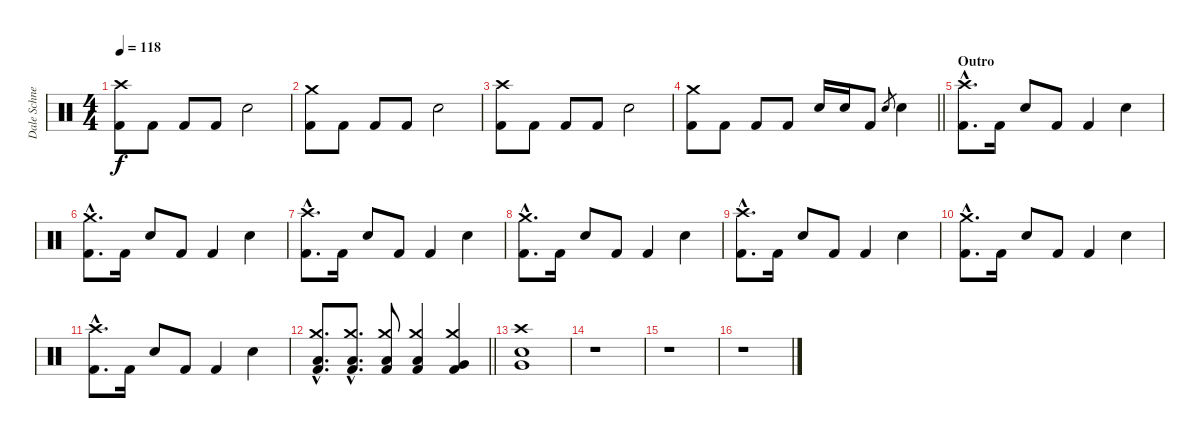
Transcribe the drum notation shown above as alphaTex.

\track ("Dale Schnettler (Drums)" "Dale Schne") {instrument percussion}
\staff {score}
\articulation defaults
\ts (4 4)
\tempo 118
\clef neutral
\ks c
("Crash high (hit)" "Kick (hit) 2").8{dy f} "Kick (hit) 2".8 "Kick (hit) 2".8 "Kick (hit) 2".8 "Electric Snare (hit)".2 |
("Crash medium (hit)" "Kick (hit) 2").8 "Kick (hit) 2".8 "Kick (hit) 2".8 "Kick (hit) 2".8 "Electric Snare (hit)".2 |
("Crash high (hit)" "Kick (hit) 2").8 "Kick (hit) 2".8 "Kick (hit) 2".8 "Kick (hit) 2".8 "Electric Snare (hit)".2 |
\barLineRight lightlight
("Crash medium (hit)" "Kick (hit) 2").8 "Kick (hit) 2".8 "Kick (hit) 2".8 "Kick (hit) 2".8 "Electric Snare (hit)".16 "Electric Snare (hit)".16 "Kick (hit) 2".8 "Electric Snare (hit)".8{gr} "Electric Snare (hit)".4 |
\section ("" "Outro")
("Crash high (hit)"{hac} "Kick (hit) 2"{hac}).8{d} "Kick (hit) 2".16 "Electric Snare (hit)".8 "Kick (hit) 2".8 "Kick (hit) 2".4 "Electric Snare (hit)".4 |
("Crash medium (hit)"{hac} "Kick (hit) 2"{hac}).8{d} "Kick (hit) 2".16 "Electric Snare (hit)".8 "Kick (hit) 2".8 "Kick (hit) 2".4 "Electric Snare (hit)".4 |
("Crash high (hit)"{hac} "Kick (hit) 2"{hac}).8{d} "Kick (hit) 2".16 "Electric Snare (hit)".8 "Kick (hit) 2".8 "Kick (hit) 2".4 "Electric Snare (hit)".4 |
("Crash medium (hit)"{hac} "Kick (hit) 2"{hac}).8{d} "Kick (hit) 2".16 "Electric Snare (hit)".8 "Kick (hit) 2".8 "Kick (hit) 2".4 "Electric Snare (hit)".4 |
("Crash high (hit)"{hac} "Kick (hit) 2"{hac}).8{d} "Kick (hit) 2".16 "Electric Snare (hit)".8 "Kick (hit) 2".8 "Kick (hit) 2".4 "Electric Snare (hit)".4 |
("Crash medium (hit)"{hac} "Kick (hit) 2"{hac}).8{d} "Kick (hit) 2".16 "Electric Snare (hit)".8 "Kick (hit) 2".8 "Kick (hit) 2".4 "Electric Snare (hit)".4 |
("Crash high (hit)"{hac} "Kick (hit) 2"{hac}).8{d} "Kick (hit) 2".16 "Electric Snare (hit)".8 "Kick (hit) 2".8 "Kick (hit) 2".4 "Electric Snare (hit)".4 |
\barLineRight lightlight
("Crash medium (hit)"{hac} "Kick (hit) 2"{hac} "Low Tom (hit)"{hac}).8{d} ("Crash medium (hit)"{hac} "Kick (hit) 2"{hac} "Low Tom (hit)"{hac}).8{d} ("Crash medium (hit)" "Kick (hit) 2" "Low Tom (hit)").8 ("Crash medium (hit)" "Kick (hit) 2" "Low Tom (hit)").4 ("Crash medium (hit)" "Kick (hit) 2" "Very Low Tom (hit)").4 |
("Crash high (hit)" "Electric Snare (hit)" "Very Low Tom (hit)").1 |
r.1 |
r.1 |
r.1
